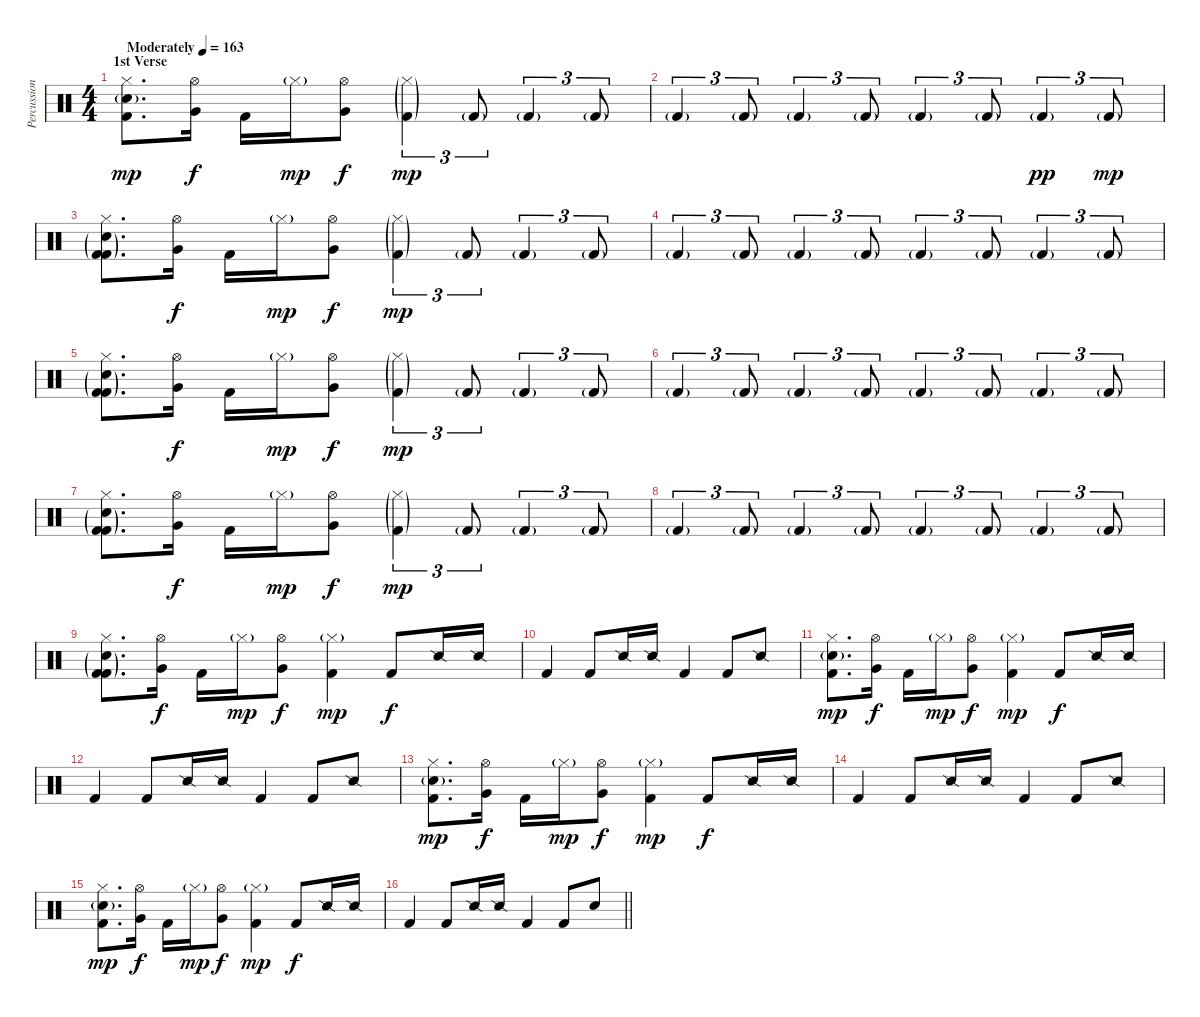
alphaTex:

\track ("Percussion" "Percussion") {instrument percussion}
\staff {score}
\articulation defaults
\ts (4 4)
\section ("" "1st Verse")
\tempo (163 "Moderately")
\clef neutral
\ks c
("Hi-Hat (closed)" "Snare (hit) 2"{g} "Kick (hit) 2").8{d dy mp} ("Hi-Hat (open)" "Very Low Tom (hit)").16{dy f} "Kick (hit) 2".16 "Hi-Hat (closed)"{g}.16{dy mp} ("Hi-Hat (open)" "Very Low Tom (hit)").8{dy f} ("Kick (hit) 2"{g} "Hi-Hat (closed)"{g}).4{tu (3 2) dy mp} "Kick (hit) 2"{g}.8{tu (3 2)} "Kick (hit) 2"{g}.4{tu (3 2)} "Kick (hit) 2"{g}.8{tu (3 2)} |
"Kick (hit) 2"{g}.4{tu (3 2)} "Kick (hit) 2"{g}.8{tu (3 2)} "Kick (hit) 2"{g}.4{tu (3 2)} "Kick (hit) 2"{g}.8{tu (3 2)} "Kick (hit) 2"{g}.4{tu (3 2)} "Kick (hit) 2"{g}.8{tu (3 2)} "Kick (hit) 2"{g}.4{tu (3 2) dy pp} "Kick (hit) 2"{g}.8{tu (3 2) dy mp} |
("Kick (hit) 2"{g} "Hi-Hat (closed)" "Snare (hit) 2"{g} "Kick (hit) 2").8{d} ("Hi-Hat (open)" "Very Low Tom (hit)").16{dy f} "Kick (hit) 2".16 "Hi-Hat (closed)"{g}.16{dy mp} ("Hi-Hat (open)" "Very Low Tom (hit)").8{dy f} ("Kick (hit) 2"{g} "Hi-Hat (closed)"{g}).4{tu (3 2) dy mp} "Kick (hit) 2"{g}.8{tu (3 2)} "Kick (hit) 2"{g}.4{tu (3 2)} "Kick (hit) 2"{g}.8{tu (3 2)} |
"Kick (hit) 2"{g}.4{tu (3 2)} "Kick (hit) 2"{g}.8{tu (3 2)} "Kick (hit) 2"{g}.4{tu (3 2)} "Kick (hit) 2"{g}.8{tu (3 2)} "Kick (hit) 2"{g}.4{tu (3 2)} "Kick (hit) 2"{g}.8{tu (3 2)} "Kick (hit) 2"{g}.4{tu (3 2)} "Kick (hit) 2"{g}.8{tu (3 2)} |
("Kick (hit) 2"{g} "Hi-Hat (closed)" "Snare (hit) 2"{g} "Kick (hit) 2").8{d} ("Hi-Hat (open)" "Very Low Tom (hit)").16{dy f} "Kick (hit) 2".16 "Hi-Hat (closed)"{g}.16{dy mp} ("Hi-Hat (open)" "Very Low Tom (hit)").8{dy f} ("Kick (hit) 2"{g} "Hi-Hat (closed)"{g}).4{tu (3 2) dy mp} "Kick (hit) 2"{g}.8{tu (3 2)} "Kick (hit) 2"{g}.4{tu (3 2)} "Kick (hit) 2"{g}.8{tu (3 2)} |
"Kick (hit) 2"{g}.4{tu (3 2)} "Kick (hit) 2"{g}.8{tu (3 2)} "Kick (hit) 2"{g}.4{tu (3 2)} "Kick (hit) 2"{g}.8{tu (3 2)} "Kick (hit) 2"{g}.4{tu (3 2)} "Kick (hit) 2"{g}.8{tu (3 2)} "Kick (hit) 2"{g}.4{tu (3 2)} "Kick (hit) 2"{g}.8{tu (3 2)} |
("Kick (hit) 2"{g} "Hi-Hat (closed)" "Snare (hit) 2"{g} "Kick (hit) 2").8{d} ("Hi-Hat (open)" "Very Low Tom (hit)").16{dy f} "Kick (hit) 2".16 "Hi-Hat (closed)"{g}.16{dy mp} ("Hi-Hat (open)" "Very Low Tom (hit)").8{dy f} ("Kick (hit) 2"{g} "Hi-Hat (closed)"{g}).4{tu (3 2) dy mp} "Kick (hit) 2"{g}.8{tu (3 2)} "Kick (hit) 2"{g}.4{tu (3 2)} "Kick (hit) 2"{g}.8{tu (3 2)} |
"Kick (hit) 2"{g}.4{tu (3 2)} "Kick (hit) 2"{g}.8{tu (3 2)} "Kick (hit) 2"{g}.4{tu (3 2)} "Kick (hit) 2"{g}.8{tu (3 2)} "Kick (hit) 2"{g}.4{tu (3 2)} "Kick (hit) 2"{g}.8{tu (3 2)} "Kick (hit) 2"{g}.4{tu (3 2)} "Kick (hit) 2"{g}.8{tu (3 2)} |
("Kick (hit) 2"{g} "Hi-Hat (closed)" "Snare (hit) 2"{g} "Kick (hit) 2").8{d} ("Hi-Hat (open)" "Very Low Tom (hit)").16{dy f} "Kick (hit) 2".16 "Hi-Hat (closed)"{g}.16{dy mp} ("Hi-Hat (open)" "Very Low Tom (hit)").8{dy f} ("Hi-Hat (closed)"{g} "Kick (hit) 2").4{dy mp} "Kick (hit) 2".8{dy f} "Snare (side stick) 2".16 "Snare (side stick) 2".16 |
"Kick (hit) 2".4 "Kick (hit) 2".8 "Snare (side stick) 2".16 "Snare (side stick) 2".16 "Kick (hit) 2".4 "Kick (hit) 2".8 "Snare (side stick) 2".8 |
("Hi-Hat (closed)" "Snare (hit) 2"{g} "Kick (hit) 2").8{d dy mp} ("Hi-Hat (open)" "Very Low Tom (hit)").16{dy f} "Kick (hit) 2".16 "Hi-Hat (closed)"{g}.16{dy mp} ("Hi-Hat (open)" "Very Low Tom (hit)").8{dy f} ("Hi-Hat (closed)"{g} "Kick (hit) 2").4{dy mp} "Kick (hit) 2".8{dy f} "Snare (side stick) 2".16 "Snare (side stick) 2".16 |
"Kick (hit) 2".4 "Kick (hit) 2".8 "Snare (side stick) 2".16 "Snare (side stick) 2".16 "Kick (hit) 2".4 "Kick (hit) 2".8 "Snare (side stick) 2".8 |
("Hi-Hat (closed)" "Snare (hit) 2"{g} "Kick (hit) 2").8{d dy mp} ("Hi-Hat (open)" "Very Low Tom (hit)").16{dy f} "Kick (hit) 2".16 "Hi-Hat (closed)"{g}.16{dy mp} ("Hi-Hat (open)" "Very Low Tom (hit)").8{dy f} ("Hi-Hat (closed)"{g} "Kick (hit) 2").4{dy mp} "Kick (hit) 2".8{dy f} "Snare (side stick) 2".16 "Snare (side stick) 2".16 |
"Kick (hit) 2".4 "Kick (hit) 2".8 "Snare (side stick) 2".16 "Snare (side stick) 2".16 "Kick (hit) 2".4 "Kick (hit) 2".8 "Snare (side stick) 2".8 |
("Hi-Hat (closed)" "Snare (hit) 2"{g} "Kick (hit) 2").8{d dy mp} ("Hi-Hat (open)" "Very Low Tom (hit)").16{dy f} "Kick (hit) 2".16 "Hi-Hat (closed)"{g}.16{dy mp} ("Hi-Hat (open)" "Very Low Tom (hit)").8{dy f} ("Hi-Hat (closed)"{g} "Kick (hit) 2").4{dy mp} "Kick (hit) 2".8{dy f} "Snare (side stick) 2".16 "Snare (side stick) 2".16 |
\barLineRight lightlight "Kick (hit) 2".4 "Kick (hit) 2".8 "Snare (side stick) 2".16 "Snare (side stick) 2".16 "Kick (hit) 2".4 "Kick (hit) 2".8 "Snare (hit) 2".8
